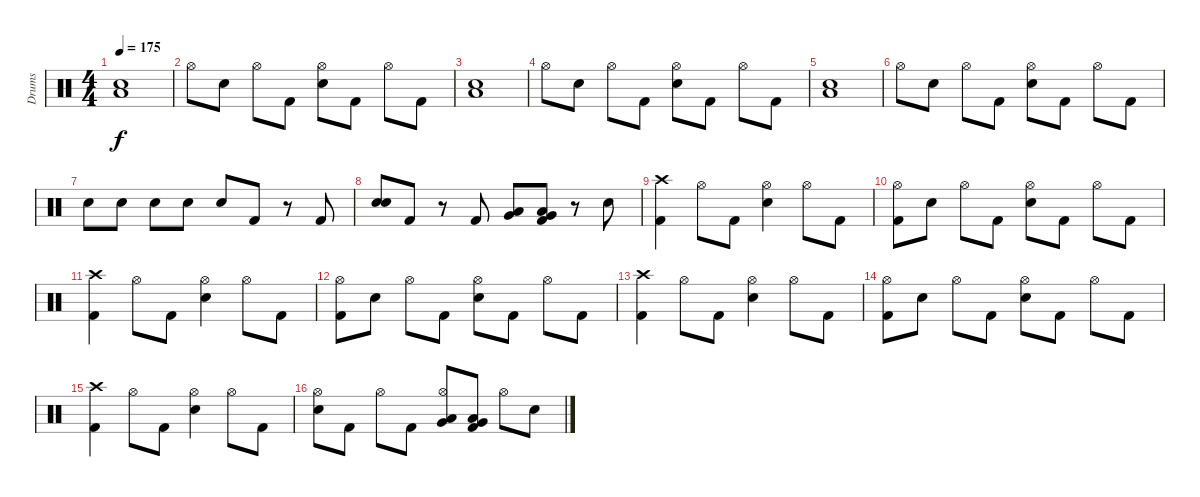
\track ("Drums" "Drums") {instrument percussion}
\staff {score}
\articulation defaults
\ts (4 4)
\tempo 175
\clef neutral
\ks c
("Electric Snare (hit)" "Low Floor Tom (hit)").1{dy f} |
"Hi-Hat (open)".8 "Electric Snare (hit)".8 "Hi-Hat (open)".8 "Kick (hit) 2".8 ("Hi-Hat (open)" "Electric Snare (hit)").8 "Kick (hit) 2".8 "Hi-Hat (open)".8 "Kick (hit) 2".8 |
("Electric Snare (hit)" "Low Floor Tom (hit)").1 |
"Hi-Hat (open)".8 "Electric Snare (hit)".8 "Hi-Hat (open)".8 "Kick (hit) 2".8 ("Hi-Hat (open)" "Electric Snare (hit)").8 "Kick (hit) 2".8 "Hi-Hat (open)".8 "Kick (hit) 2".8 |
("Electric Snare (hit)" "Low Floor Tom (hit)").1 |
"Hi-Hat (open)".8 "Electric Snare (hit)".8 "Hi-Hat (open)".8 "Kick (hit) 2".8 ("Hi-Hat (open)" "Electric Snare (hit)").8 "Kick (hit) 2".8 "Hi-Hat (open)".8 "Kick (hit) 2".8 |
"Electric Snare (hit)".8 "Electric Snare (hit)".8 "Electric Snare (hit)".8 "Electric Snare (hit)".8 "Electric Snare (hit)".8 "Kick (hit) 2".8 r.8 "Kick (hit) 2".8 |
("Electric Snare (hit)" "Electric Snare (hit)").8{bd 240} "Kick (hit) 2".8 r.8 "Kick (hit) 2".8 ("Very Low Tom (hit)" "Low Floor Tom (hit)").8 ("Very Low Tom (hit)" "Low Floor Tom (hit)" "Kick (hit) 2").8 r.8 "Electric Snare (hit)".8 |
("Crash high (hit)" "Kick (hit) 2").4 "Hi-Hat (open)".8 "Kick (hit) 2".8 ("Hi-Hat (open)" "Electric Snare (hit)").4 "Hi-Hat (open)".8 "Kick (hit) 2".8 |
("Hi-Hat (open)" "Kick (hit) 2").8 "Electric Snare (hit)".8 "Hi-Hat (open)".8 "Kick (hit) 2".8 ("Hi-Hat (open)" "Electric Snare (hit)").8 "Kick (hit) 2".8 "Hi-Hat (open)".8 "Kick (hit) 2".8 |
("Crash high (hit)" "Kick (hit) 2").4 "Hi-Hat (open)".8 "Kick (hit) 2".8 ("Hi-Hat (open)" "Electric Snare (hit)").4 "Hi-Hat (open)".8 "Kick (hit) 2".8 |
("Hi-Hat (open)" "Kick (hit) 2").8 "Electric Snare (hit)".8 "Hi-Hat (open)".8 "Kick (hit) 2".8 ("Hi-Hat (open)" "Electric Snare (hit)").8 "Kick (hit) 2".8 "Hi-Hat (open)".8 "Kick (hit) 2".8 |
("Crash high (hit)" "Kick (hit) 2").4 "Hi-Hat (open)".8 "Kick (hit) 2".8 ("Hi-Hat (open)" "Electric Snare (hit)").4 "Hi-Hat (open)".8 "Kick (hit) 2".8 |
("Hi-Hat (open)" "Kick (hit) 2").8 "Electric Snare (hit)".8 "Hi-Hat (open)".8 "Kick (hit) 2".8 ("Hi-Hat (open)" "Electric Snare (hit)").8 "Kick (hit) 2".8 "Hi-Hat (open)".8 "Kick (hit) 2".8 |
("Crash high (hit)" "Kick (hit) 2").4 "Hi-Hat (open)".8 "Kick (hit) 2".8 ("Hi-Hat (open)" "Electric Snare (hit)").4 "Hi-Hat (open)".8 "Kick (hit) 2".8 |
("Hi-Hat (open)" "Electric Snare (hit)").8 "Kick (hit) 2".8 "Hi-Hat (open)".8 "Kick (hit) 2".8 ("Hi-Hat (open)" "Very Low Tom (hit)" "Low Floor Tom (hit)").8 ("Very Low Tom (hit)" "Low Floor Tom (hit)" "Kick (hit) 2").8 "Hi-Hat (open)".8 "Electric Snare (hit)".8
